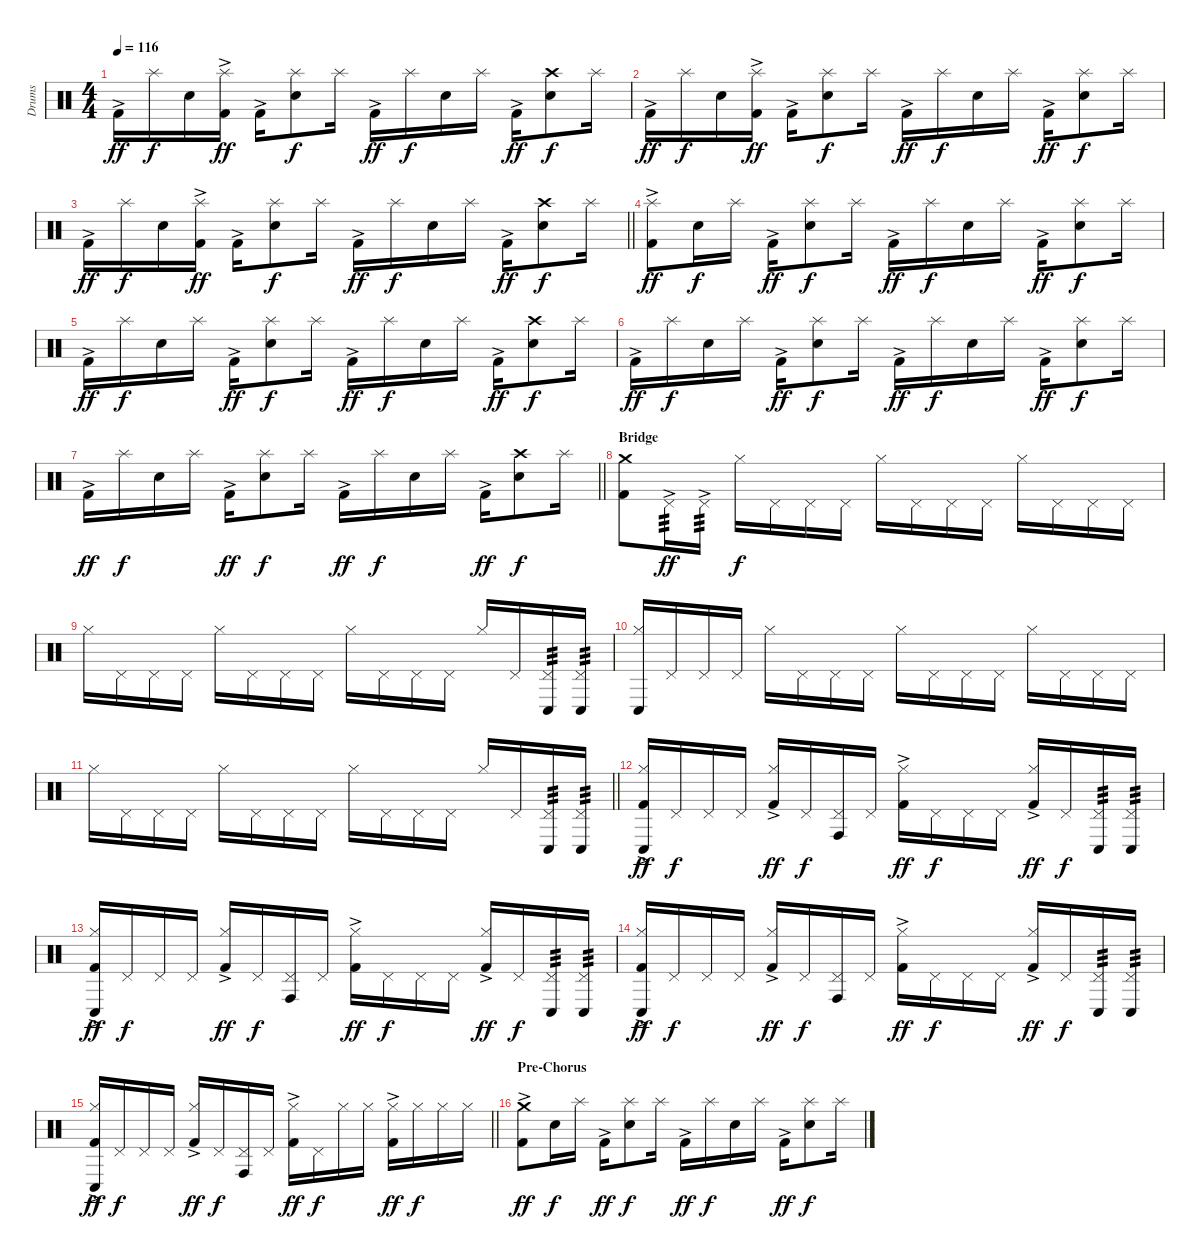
\track ("Drums" "Drums") {instrument percussion}
\staff {score}
\articulation defaults
\ts (4 4)
\tempo 116
\clef neutral
\ks c "Kick (hit) 2"{ac}.16{dy ff} "Splash (hit)".16{dy f} "Snare (hit) 2".16
("Kick (hit) 2"{ac} "Splash (hit)").16{dy ff} "Kick (hit) 2"{ac}.16 ("Snare (hit) 2" "Splash (hit)").8{dy f} "Splash (hit)".16 "Kick (hit) 2"{ac}.16{dy ff} "Splash (hit)".16{dy f} "Snare (hit) 2".16 "Splash (hit)".16 "Kick (hit) 2"{ac}.16{dy ff} ("Snare (hit) 2" "Crash high (hit)").8{dy f} "Splash (hit)".16 |
"Kick (hit) 2"{ac}.16{dy ff} "Splash (hit)".16{dy f} "Snare (hit) 2".16 ("Kick (hit) 2"{ac} "Splash (hit)").16{dy ff} "Kick (hit) 2"{ac}.16 ("Snare (hit) 2" "Splash (hit)").8{dy f} "Splash (hit)".16 "Kick (hit) 2"{ac}.16{dy ff} "Splash (hit)".16{dy f} "Snare (hit) 2".16 "Splash (hit)".16 "Kick (hit) 2"{ac}.16{dy ff} ("Snare (hit) 2" "Splash (hit)").8{dy f} "Splash (hit)".16 |
\barLineRight lightlight "Kick (hit) 2"{ac}.16{dy ff} "Splash (hit)".16{dy f} "Snare (hit) 2".16
("Kick (hit) 2"{ac} "Splash (hit)").16{dy ff} "Kick (hit) 2"{ac}.16 ("Snare (hit) 2" "Splash (hit)").8{dy f} "Splash (hit)".16 "Kick (hit) 2"{ac}.16{dy ff} "Splash (hit)".16{dy f} "Snare (hit) 2".16 "Splash (hit)".16 "Kick (hit) 2"{ac}.16{dy ff} ("Snare (hit) 2" "Crash high (hit)").8{dy f} "Splash (hit)".16 |
\section ("" "")
("Kick (hit) 2"{ac} "Splash (hit)").8{dy ff} "Snare (hit) 2".16{dy f} "Splash (hit)".16 "Kick (hit) 2"{ac}.16{dy ff} ("Snare (hit) 2" "Splash (hit)").8{dy f} "Splash (hit)".16 "Kick (hit) 2"{ac}.16{dy ff} "Splash (hit)".16{dy f} "Snare (hit) 2".16 "Splash (hit)".16 "Kick (hit) 2"{ac}.16{dy ff} ("Snare (hit) 2" "Splash (hit)").8{dy f} "Splash (hit)".16 |
"Kick (hit) 2"{ac}.16{dy ff} "Splash (hit)".16{dy f} "Snare (hit) 2".16 "Splash (hit)".16 "Kick (hit) 2"{ac}.16{dy ff} ("Snare (hit) 2" "Splash (hit)").8{dy f} "Splash (hit)".16 "Kick (hit) 2"{ac}.16{dy ff} "Splash (hit)".16{dy f} "Snare (hit) 2".16 "Splash (hit)".16 "Kick (hit) 2"{ac}.16{dy ff} ("Snare (hit) 2" "Crash high (hit)").8{dy f} "Splash (hit)".16 |
"Kick (hit) 2"{ac}.16{dy ff} "Splash (hit)".16{dy f} "Snare (hit) 2".16 "Splash (hit)".16 "Kick (hit) 2"{ac}.16{dy ff} ("Snare (hit) 2" "Splash (hit)").8{dy f} "Splash (hit)".16 "Kick (hit) 2"{ac}.16{dy ff} "Splash (hit)".16{dy f} "Snare (hit) 2".16 "Splash (hit)".16 "Kick (hit) 2"{ac}.16{dy ff} ("Snare (hit) 2" "Splash (hit)").8{dy f} "Splash (hit)".16 |
\barLineRight lightlight "Kick (hit) 2"{ac}.16{dy ff} "Splash (hit)".16{dy f} "Snare (hit) 2".16 "Splash (hit)".16 "Kick (hit) 2"{ac}.16{dy ff}
("Snare (hit) 2" "Splash (hit)").8{dy f} "Splash (hit)".16 "Kick (hit) 2"{ac}.16{dy ff} "Splash (hit)".16{dy f} "Snare (hit) 2".16 "Splash (hit)".16 "Kick (hit) 2"{ac}.16{dy ff} ("Snare (hit) 2" "Crash high (hit)").8{dy f} "Splash (hit)".16 |
\section ("" "Bridge")
("Kick (hit) 2" "Crash medium (hit)").8 "Pedal Hi-Hat (hit)"{ac}.16{tp 3 dy ff} "Pedal Hi-Hat (hit)"{ac}.16{tp 3} "Hi-Hat (closed)".16{dy f} "Pedal Hi-Hat (hit)".16 "Pedal Hi-Hat (hit)".16 "Pedal Hi-Hat (hit)".16 "Hi-Hat (closed)".16 "Pedal Hi-Hat (hit)".16 "Pedal Hi-Hat (hit)".16 "Pedal Hi-Hat (hit)".16 "Hi-Hat (closed)".16 "Pedal Hi-Hat (hit)".16 "Pedal Hi-Hat (hit)".16 "Pedal Hi-Hat (hit)".16 |
"Hi-Hat (closed)".16 "Pedal Hi-Hat (hit)".16 "Pedal Hi-Hat (hit)".16 "Pedal Hi-Hat (hit)".16 "Hi-Hat (closed)".16 "Pedal Hi-Hat (hit)".16 "Pedal Hi-Hat (hit)".16 "Pedal Hi-Hat (hit)".16 "Hi-Hat (closed)".16 "Pedal Hi-Hat (hit)".16 "Pedal Hi-Hat (hit)".16 "Pedal Hi-Hat (hit)".16 "Hi-Hat (closed)".16 "Pedal Hi-Hat (hit)".16 ("Conga low (hit)" "Pedal Hi-Hat (hit)").16{tp 3} ("Conga low (hit)" "Pedal Hi-Hat (hit)").16{tp 3} |
("Conga low (hit)" "Hi-Hat (closed)").16 "Pedal Hi-Hat (hit)".16 "Pedal Hi-Hat (hit)".16 "Pedal Hi-Hat (hit)".16 "Hi-Hat (closed)".16 "Pedal Hi-Hat (hit)".16 "Pedal Hi-Hat (hit)".16 "Pedal Hi-Hat (hit)".16 "Hi-Hat (closed)".16 "Pedal Hi-Hat (hit)".16 "Pedal Hi-Hat (hit)".16 "Pedal Hi-Hat (hit)".16 "Hi-Hat (closed)".16 "Pedal Hi-Hat (hit)".16 "Pedal Hi-Hat (hit)".16 "Pedal Hi-Hat (hit)".16 |
\barLineRight lightlight "Hi-Hat (closed)".16 "Pedal Hi-Hat (hit)".16 "Pedal Hi-Hat (hit)".16 "Pedal Hi-Hat (hit)".16 "Hi-Hat (closed)".16 "Pedal Hi-Hat (hit)".16 "Pedal Hi-Hat (hit)".16 "Pedal Hi-Hat (hit)".16 "Hi-Hat (closed)".16 "Pedal Hi-Hat (hit)".16 "Pedal Hi-Hat (hit)".16 "Pedal Hi-Hat (hit)".16 "Hi-Hat (closed)".16 "Pedal Hi-Hat (hit)".16
("Conga low (hit)" "Pedal Hi-Hat (hit)").16{tp 3} ("Conga low (hit)" "Pedal Hi-Hat (hit)").16{tp 3} |
\section ("" "")
("Kick (hit) 2"{ac} "Conga low (hit)" "Hi-Hat (closed)").16{dy ff} "Pedal Hi-Hat (hit)".16{dy f} "Pedal Hi-Hat (hit)".16 "Pedal Hi-Hat (hit)".16 ("Kick (hit) 2"{ac} "Hi-Hat (closed)").16{dy ff} "Pedal Hi-Hat (hit)".16{dy f} ("Conga high (hit)" "Pedal Hi-Hat (hit)").16 "Pedal Hi-Hat (hit)".16 ("Kick (hit) 2"{ac} "Hi-Hat (closed)").16{dy ff} "Pedal Hi-Hat (hit)".16{dy f} "Pedal Hi-Hat (hit)".16 "Pedal Hi-Hat (hit)".16 ("Kick (hit) 2"{ac} "Hi-Hat (closed)").16{dy ff} "Pedal Hi-Hat (hit)".16{dy f} ("Conga low (hit)" "Pedal Hi-Hat (hit)").16{tp 3} ("Conga low (hit)" "Pedal Hi-Hat (hit)").16{tp 3} |
("Kick (hit) 2"{ac} "Conga low (hit)" "Hi-Hat (closed)").16{dy ff} "Pedal Hi-Hat (hit)".16{dy f} "Pedal Hi-Hat (hit)".16 "Pedal Hi-Hat (hit)".16 ("Kick (hit) 2"{ac} "Hi-Hat (closed)").16{dy ff} "Pedal Hi-Hat (hit)".16{dy f} ("Conga high (hit)" "Pedal Hi-Hat (hit)").16 "Pedal Hi-Hat (hit)".16 ("Kick (hit) 2"{ac} "Hi-Hat (closed)").16{dy ff} "Pedal Hi-Hat (hit)".16{dy f} "Pedal Hi-Hat (hit)".16 "Pedal Hi-Hat (hit)".16 ("Kick (hit) 2"{ac} "Hi-Hat (closed)").16{dy ff} "Pedal Hi-Hat (hit)".16{dy f} ("Conga low (hit)" "Pedal Hi-Hat (hit)").16{tp 3} ("Conga low (hit)" "Pedal Hi-Hat (hit)").16{tp 3} |
("Kick (hit) 2"{ac} "Conga low (hit)" "Hi-Hat (closed)").16{dy ff} "Pedal Hi-Hat (hit)".16{dy f} "Pedal Hi-Hat (hit)".16 "Pedal Hi-Hat (hit)".16 ("Kick (hit) 2"{ac} "Hi-Hat (closed)").16{dy ff} "Pedal Hi-Hat (hit)".16{dy f} ("Conga high (hit)" "Pedal Hi-Hat (hit)").16 "Pedal Hi-Hat (hit)".16 ("Kick (hit) 2"{ac} "Hi-Hat (closed)").16{dy ff} "Pedal Hi-Hat (hit)".16{dy f} "Pedal Hi-Hat (hit)".16 "Pedal Hi-Hat (hit)".16 ("Kick (hit) 2"{ac} "Hi-Hat (closed)").16{dy ff} "Pedal Hi-Hat (hit)".16{dy f} ("Conga low (hit)" "Pedal Hi-Hat (hit)").16{tp 3} ("Conga low (hit)" "Pedal Hi-Hat (hit)").16{tp 3} |
\barLineRight lightlight
("Kick (hit) 2"{ac} "Conga low (hit)" "Hi-Hat (closed)").16{dy ff} "Pedal Hi-Hat (hit)".16{dy f} "Pedal Hi-Hat (hit)".16 "Pedal Hi-Hat (hit)".16 ("Kick (hit) 2"{ac} "Hi-Hat (closed)").16{dy ff} "Pedal Hi-Hat (hit)".16{dy f} ("Conga high (hit)" "Pedal Hi-Hat (hit)").16 "Pedal Hi-Hat (hit)".16 ("Kick (hit) 2"{ac} "Hi-Hat (closed)").16{dy ff} "Pedal Hi-Hat (hit)".16{dy f} "Hi-Hat (closed)".16 "Hi-Hat (closed)".16 ("Kick (hit) 2"{ac} "Hi-Hat (closed)").16{dy ff} "Hi-Hat (closed)".16{dy f} "Hi-Hat (closed)".16 "Hi-Hat (closed)".16 |
\section ("" "Pre-Chorus")
("Kick (hit) 2"{ac} "Crash medium (hit)").8{dy ff} "Snare (hit) 2".16{dy f} "Splash (hit)".16 "Kick (hit) 2"{ac}.16{dy ff} ("Snare (hit) 2" "Splash (hit)").8{dy f} "Splash (hit)".16 "Kick (hit) 2"{ac}.16{dy ff} "Splash (hit)".16{dy f} "Snare (hit) 2".16 "Splash (hit)".16 "Kick (hit) 2"{ac}.16{dy ff} ("Snare (hit) 2" "Splash (hit)").8{dy f} "Splash (hit)".16
